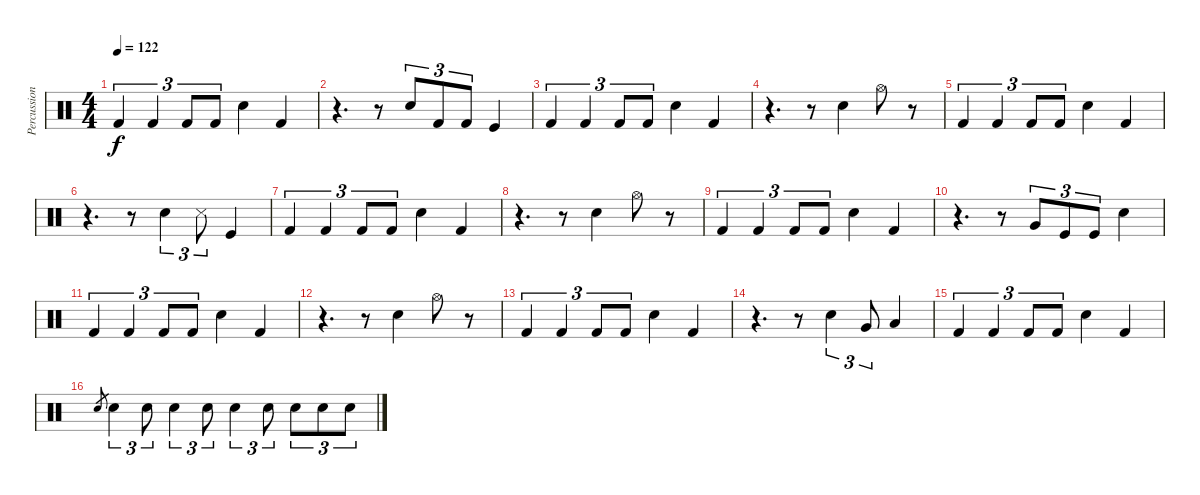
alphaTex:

\track ("Percussions" "Percussion") {instrument percussion}
\staff {score}
\articulation defaults
\ts (4 4)
\tempo 122
\clef neutral
\ks c "Kick (hit) 2".4{tu (3 2) dy f} "Kick (hit) 2".4{tu (3 2)} "Kick (hit) 2".8{tu (3 2)} "Kick (hit) 2".8{tu (3 2)} "Electric Snare (hit)".4 "Kick (hit) 2".4
|
r.4{d} r.8 "Electric Snare (hit)".8{tu (3 2)} "Kick (hit) 2".8{tu (3 2)} "Kick (hit) 2".8{tu (3 2)} "Kick (hit)".4 |
"Kick (hit) 2".4{tu (3 2)} "Kick (hit) 2".4{tu (3 2)} "Kick (hit) 2".8{tu (3 2)} "Kick (hit) 2".8{tu (3 2)} "Electric Snare (hit)".4 "Kick (hit) 2".4 |
r.4{d} r.8 "Electric Snare (hit)".4 "Hi-Hat (open)".8 r.8 |
"Kick (hit) 2".4{tu (3 2)} "Kick (hit) 2".4{tu (3 2)} "Kick (hit) 2".8{tu (3 2)} "Kick (hit) 2".8{tu (3 2)} "Electric Snare (hit)".4 "Kick (hit) 2".4 |
r.4{d} r.8 "Electric Snare (hit)".4{tu (3 2)} "Snare (side stick) 3".8{tu (3 2)} "Kick (hit)".4 |
"Kick (hit) 2".4{tu (3 2)} "Kick (hit) 2".4{tu (3 2)} "Kick (hit) 2".8{tu (3 2)} "Kick (hit) 2".8{tu (3 2)} "Electric Snare (hit)".4 "Kick (hit) 2".4 |
r.4{d} r.8 "Electric Snare (hit)".4 "Hi-Hat (open)".8 r.8 |
"Kick (hit) 2".4{tu (3 2)} "Kick (hit) 2".4{tu (3 2)} "Kick (hit) 2".8{tu (3 2)} "Kick (hit) 2".8{tu (3 2)} "Electric Snare (hit)".4 "Kick (hit) 2".4 |
r.4{d} r.8 "Very Low Tom (hit)".8{tu (3 2)} "Kick (hit)".8{tu (3 2)} "Kick (hit)".8{tu (3 2)} "Electric Snare (hit)".4 |
"Kick (hit) 2".4{tu (3 2)} "Kick (hit) 2".4{tu (3 2)} "Kick (hit) 2".8{tu (3 2)} "Kick (hit) 2".8{tu (3 2)} "Electric Snare (hit)".4 "Kick (hit) 2".4 |
r.4{d} r.8 "Electric Snare (hit)".4 "Hi-Hat (open)".8 r.8 |
"Kick (hit) 2".4{tu (3 2)} "Kick (hit) 2".4{tu (3 2)} "Kick (hit) 2".8{tu (3 2)} "Kick (hit) 2".8{tu (3 2)} "Electric Snare (hit)".4 "Kick (hit) 2".4 |
r.4{d} r.8 "Electric Snare (hit)".4{tu (3 2)} "Very Low Tom (hit)".8{tu (3 2)} "Low Tom (hit)".4 |
"Kick (hit) 2".4{tu (3 2)} "Kick (hit) 2".4{tu (3 2)} "Kick (hit) 2".8{tu (3 2)} "Kick (hit) 2".8{tu (3 2)} "Electric Snare (hit)".4 "Kick (hit) 2".4 |
"Electric Snare (hit)".8{gr} "Electric Snare (hit)".4{tu (3 2)} "Electric Snare (hit)".8{tu (3 2)} "Electric Snare (hit)".4{tu (3 2)} "Electric Snare (hit)".8{tu (3 2)} "Electric Snare (hit)".4{tu (3 2)} "Electric Snare (hit)".8{tu (3 2)} "Electric Snare (hit)".8{tu (3 2)} "Electric Snare (hit)".8{tu (3 2)} "Electric Snare (hit)".8{tu (3 2)}
